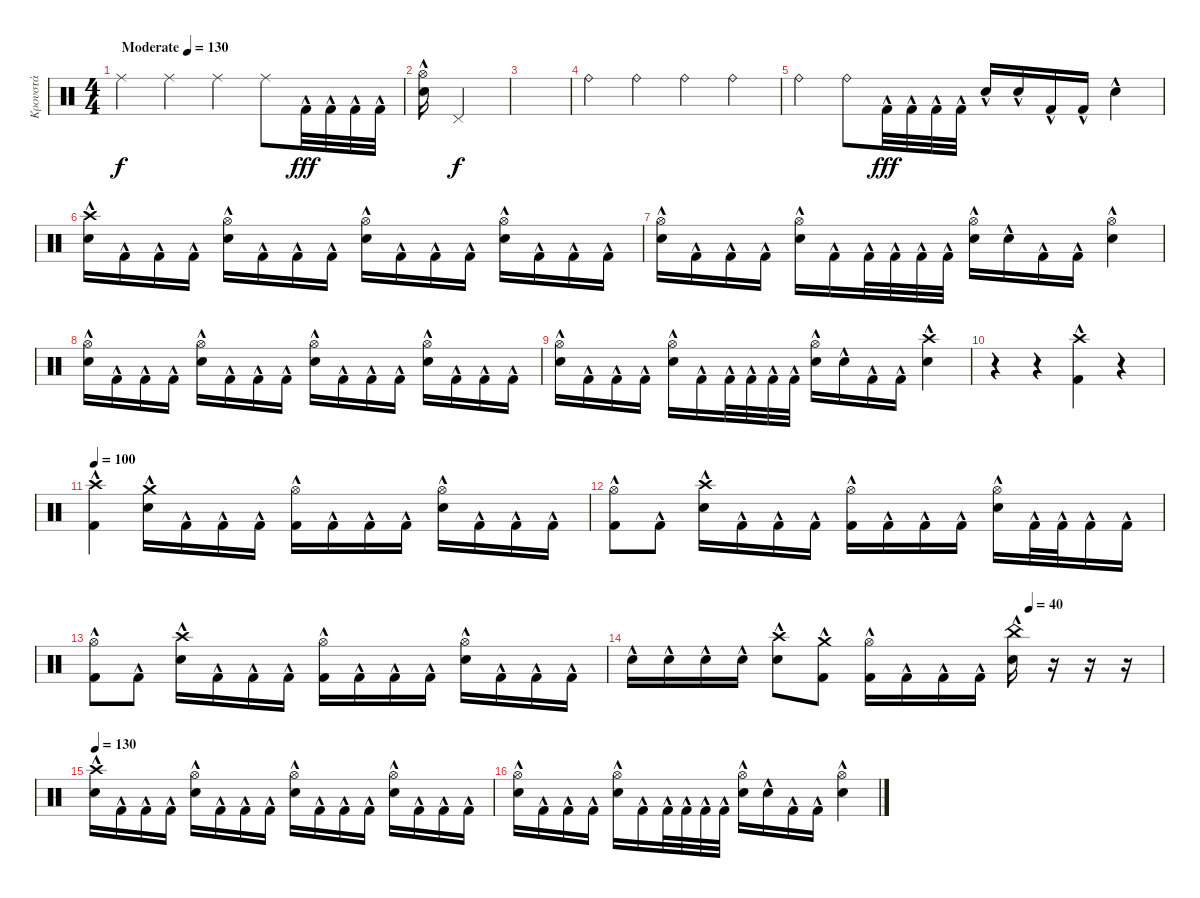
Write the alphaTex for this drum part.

\track ("Κρουστά" "Κρουστά") {instrument percussion}
\staff {score}
\articulation defaults
\ts (4 4)
\tempo (130 "Moderate")
\clef neutral
\ks c "Ride (middle)".4{dy f} "Ride (middle)".4 "Ride (middle)".4 "Ride (middle)".8 "Kick (hit) 2"{hac}.32{dy fff} "Kick (hit) 2"{hac}.32 "Kick (hit) 2"{hac}.32 "Kick (hit) 2"{hac}.32
|
("Electric Snare (hit)"{hac} "Hi-Hat (open)").16 "Pedal Hi-Hat (hit)".4{dy f} |
|
"Ride (bell)".4 "Ride (bell)".4 "Ride (bell)".4 "Ride (bell)".4 |
"Ride (bell)".4 "Ride (bell)".8 "Kick (hit) 2"{hac}.32{dy fff} "Kick (hit) 2"{hac}.32 "Kick (hit) 2"{hac}.32 "Kick (hit) 2"{hac}.32 "Electric Snare (hit)"{hac}.16 "Electric Snare (hit)"{hac}.16 "Kick (hit) 2"{hac}.16 "Kick (hit) 2"{hac}.16 "Electric Snare (hit)"{hac}.4 |
("Electric Snare (hit)"{hac} "Crash high (hit)").16 "Kick (hit) 2"{hac}.16 "Kick (hit) 2"{hac}.16 "Kick (hit) 2"{hac}.16 ("Electric Snare (hit)"{hac} "Hi-Hat (open)").16 "Kick (hit) 2"{hac}.16 "Kick (hit) 2"{hac}.16 "Kick (hit) 2"{hac}.16 ("Electric Snare (hit)"{hac} "Hi-Hat (open)").16 "Kick (hit) 2"{hac}.16 "Kick (hit) 2"{hac}.16 "Kick (hit) 2"{hac}.16 ("Electric Snare (hit)"{hac} "Hi-Hat (open)").16 "Kick (hit) 2"{hac}.16 "Kick (hit) 2"{hac}.16 "Kick (hit) 2"{hac}.16 |
("Electric Snare (hit)"{hac} "Hi-Hat (open)").16 "Kick (hit) 2"{hac}.16 "Kick (hit) 2"{hac}.16 "Kick (hit) 2"{hac}.16 ("Electric Snare (hit)"{hac} "Hi-Hat (open)").16 "Kick (hit) 2"{hac}.16 "Kick (hit) 2"{hac}.32 "Kick (hit) 2"{hac}.32 "Kick (hit) 2"{hac}.32 "Kick (hit) 2"{hac}.32 ("Electric Snare (hit)"{hac} "Hi-Hat (open)").16 "Electric Snare (hit)"{hac}.16 "Kick (hit) 2"{hac}.16 "Kick (hit) 2"{hac}.16 ("Electric Snare (hit)"{hac} "Hi-Hat (open)").4 |
("Electric Snare (hit)"{hac} "Hi-Hat (open)").16 "Kick (hit) 2"{hac}.16 "Kick (hit) 2"{hac}.16 "Kick (hit) 2"{hac}.16 ("Electric Snare (hit)"{hac} "Hi-Hat (open)").16 "Kick (hit) 2"{hac}.16 "Kick (hit) 2"{hac}.16 "Kick (hit) 2"{hac}.16 ("Electric Snare (hit)"{hac} "Hi-Hat (open)").16 "Kick (hit) 2"{hac}.16 "Kick (hit) 2"{hac}.16 "Kick (hit) 2"{hac}.16 ("Electric Snare (hit)"{hac} "Hi-Hat (open)").16 "Kick (hit) 2"{hac}.16 "Kick (hit) 2"{hac}.16 "Kick (hit) 2"{hac}.16 |
("Electric Snare (hit)"{hac} "Hi-Hat (open)").16 "Kick (hit) 2"{hac}.16 "Kick (hit) 2"{hac}.16 "Kick (hit) 2"{hac}.16 ("Electric Snare (hit)"{hac} "Hi-Hat (open)").16 "Kick (hit) 2"{hac}.16 "Kick (hit) 2"{hac}.32 "Kick (hit) 2"{hac}.32 "Kick (hit) 2"{hac}.32 "Kick (hit) 2"{hac}.32 ("Electric Snare (hit)"{hac} "Hi-Hat (open)").16 "Electric Snare (hit)"{hac}.16 "Kick (hit) 2"{hac}.16 "Kick (hit) 2"{hac}.16 ("Electric Snare (hit)"{hac} "Crash high (hit)").4 |
r.4 r.4 ("Crash high (hit)" "Kick (hit) 2"{hac}).4 r.4 |
\tempo 100
("Kick (hit) 2"{hac} "Crash high (hit)").4 ("Electric Snare (hit)"{hac} "Crash medium (hit)").16 "Kick (hit) 2"{hac}.16 "Kick (hit) 2"{hac}.16 "Kick (hit) 2"{hac}.16 ("Kick (hit) 2"{hac} "Hi-Hat (open)").16 "Kick (hit) 2"{hac}.16 "Kick (hit) 2"{hac}.16 "Kick (hit) 2"{hac}.16 ("Electric Snare (hit)"{hac} "Hi-Hat (open)").16 "Kick (hit) 2"{hac}.16 "Kick (hit) 2"{hac}.16 "Kick (hit) 2"{hac}.16 |
("Kick (hit) 2"{hac} "Hi-Hat (open)").8 "Kick (hit) 2"{hac}.8 ("Electric Snare (hit)"{hac} "Crash high (hit)").16 "Kick (hit) 2"{hac}.16 "Kick (hit) 2"{hac}.16 "Kick (hit) 2"{hac}.16 ("Kick (hit) 2"{hac} "Hi-Hat (open)").16 "Kick (hit) 2"{hac}.16 "Kick (hit) 2"{hac}.16 "Kick (hit) 2"{hac}.16 ("Electric Snare (hit)"{hac} "Hi-Hat (open)").16 "Kick (hit) 2"{hac}.32 "Kick (hit) 2"{hac}.32 "Kick (hit) 2"{hac}.16 "Kick (hit) 2"{hac}.16 |
("Kick (hit) 2"{hac} "Hi-Hat (open)").8 "Kick (hit) 2"{hac}.8 ("Electric Snare (hit)"{hac} "Crash high (hit)").16 "Kick (hit) 2"{hac}.16 "Kick (hit) 2"{hac}.16 "Kick (hit) 2"{hac}.16 ("Kick (hit) 2"{hac} "Hi-Hat (open)").16 "Kick (hit) 2"{hac}.16 "Kick (hit) 2"{hac}.16 "Kick (hit) 2"{hac}.16 ("Electric Snare (hit)"{hac} "Hi-Hat (open)").16 "Kick (hit) 2"{hac}.16 "Kick (hit) 2"{hac}.16 "Kick (hit) 2"{hac}.16 |
\tempo (40 0.75)
"Electric Snare (hit)"{hac}.16 "Electric Snare (hit)"{hac}.16 "Electric Snare (hit)"{hac}.16 "Electric Snare (hit)"{hac}.16 ("Crash high (hit)" "Electric Snare (hit)"{hac}).8 ("Crash medium (hit)" "Kick (hit) 2"{hac}).8 ("Kick (hit) 2"{hac} "Hi-Hat (open)").16 "Kick (hit) 2"{hac}.16 "Kick (hit) 2"{hac}.16 "Kick (hit) 2"{hac}.16 ("Electric Snare (hit)"{hac} "China (hit)").16 r.16 r.16 r.16 |
\tempo 130
("Electric Snare (hit)"{hac} "Crash high (hit)").16 "Kick (hit) 2"{hac}.16 "Kick (hit) 2"{hac}.16 "Kick (hit) 2"{hac}.16 ("Electric Snare (hit)"{hac} "Hi-Hat (open)").16 "Kick (hit) 2"{hac}.16 "Kick (hit) 2"{hac}.16 "Kick (hit) 2"{hac}.16 ("Electric Snare (hit)"{hac} "Hi-Hat (open)").16 "Kick (hit) 2"{hac}.16 "Kick (hit) 2"{hac}.16 "Kick (hit) 2"{hac}.16 ("Electric Snare (hit)"{hac} "Hi-Hat (open)").16 "Kick (hit) 2"{hac}.16 "Kick (hit) 2"{hac}.16 "Kick (hit) 2"{hac}.16 |
("Electric Snare (hit)"{hac} "Hi-Hat (open)").16 "Kick (hit) 2"{hac}.16 "Kick (hit) 2"{hac}.16 "Kick (hit) 2"{hac}.16 ("Electric Snare (hit)"{hac} "Hi-Hat (open)").16 "Kick (hit) 2"{hac}.16 "Kick (hit) 2"{hac}.32 "Kick (hit) 2"{hac}.32 "Kick (hit) 2"{hac}.32 "Kick (hit) 2"{hac}.32 ("Electric Snare (hit)"{hac} "Hi-Hat (open)").16 "Electric Snare (hit)"{hac}.16 "Kick (hit) 2"{hac}.16 "Kick (hit) 2"{hac}.16 ("Electric Snare (hit)"{hac} "Hi-Hat (open)").4
